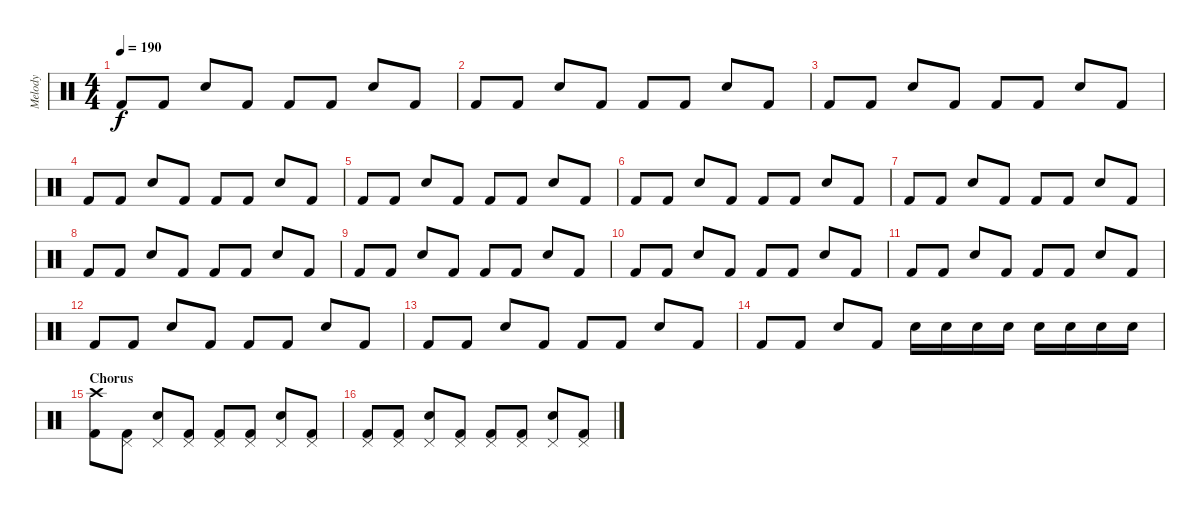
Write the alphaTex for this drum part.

\track ("Melody" "Melody") {instrument percussion}
\staff {score}
\articulation defaults
\ts (4 4)
\tempo 190
\clef neutral
\ks c "Kick (hit) 2".8{dy f} "Kick (hit) 2".8 "Snare (hit) 2".8 "Kick (hit) 2".8 "Kick (hit) 2".8 "Kick (hit) 2".8 "Snare (hit) 2".8 "Kick (hit) 2".8
|
"Kick (hit) 2".8 "Kick (hit) 2".8 "Snare (hit) 2".8 "Kick (hit) 2".8 "Kick (hit) 2".8 "Kick (hit) 2".8 "Snare (hit) 2".8 "Kick (hit) 2".8 |
"Kick (hit) 2".8 "Kick (hit) 2".8 "Snare (hit) 2".8 "Kick (hit) 2".8 "Kick (hit) 2".8 "Kick (hit) 2".8 "Snare (hit) 2".8 "Kick (hit) 2".8 |
"Kick (hit) 2".8 "Kick (hit) 2".8 "Snare (hit) 2".8 "Kick (hit) 2".8 "Kick (hit) 2".8 "Kick (hit) 2".8 "Snare (hit) 2".8 "Kick (hit) 2".8 |
"Kick (hit) 2".8 "Kick (hit) 2".8 "Snare (hit) 2".8 "Kick (hit) 2".8 "Kick (hit) 2".8 "Kick (hit) 2".8 "Snare (hit) 2".8 "Kick (hit) 2".8 |
"Kick (hit) 2".8 "Kick (hit) 2".8 "Snare (hit) 2".8 "Kick (hit) 2".8 "Kick (hit) 2".8 "Kick (hit) 2".8 "Snare (hit) 2".8 "Kick (hit) 2".8 |
"Kick (hit) 2".8 "Kick (hit) 2".8 "Snare (hit) 2".8 "Kick (hit) 2".8 "Kick (hit) 2".8 "Kick (hit) 2".8 "Snare (hit) 2".8 "Kick (hit) 2".8 |
"Kick (hit) 2".8 "Kick (hit) 2".8 "Snare (hit) 2".8 "Kick (hit) 2".8 "Kick (hit) 2".8 "Kick (hit) 2".8 "Snare (hit) 2".8 "Kick (hit) 2".8 |
"Kick (hit) 2".8 "Kick (hit) 2".8 "Snare (hit) 2".8 "Kick (hit) 2".8 "Kick (hit) 2".8 "Kick (hit) 2".8 "Snare (hit) 2".8 "Kick (hit) 2".8 |
"Kick (hit) 2".8 "Kick (hit) 2".8 "Snare (hit) 2".8 "Kick (hit) 2".8 "Kick (hit) 2".8 "Kick (hit) 2".8 "Snare (hit) 2".8 "Kick (hit) 2".8 |
"Kick (hit) 2".8 "Kick (hit) 2".8 "Snare (hit) 2".8 "Kick (hit) 2".8 "Kick (hit) 2".8 "Kick (hit) 2".8 "Snare (hit) 2".8 "Kick (hit) 2".8 |
"Kick (hit) 2".8 "Kick (hit) 2".8 "Snare (hit) 2".8 "Kick (hit) 2".8 "Kick (hit) 2".8 "Kick (hit) 2".8 "Snare (hit) 2".8 "Kick (hit) 2".8 |
"Kick (hit) 2".8 "Kick (hit) 2".8 "Snare (hit) 2".8 "Kick (hit) 2".8 "Kick (hit) 2".8 "Kick (hit) 2".8 "Snare (hit) 2".8 "Kick (hit) 2".8 |
"Kick (hit) 2".8 "Kick (hit) 2".8 "Snare (hit) 2".8 "Kick (hit) 2".8 "Snare (hit) 2".16 "Snare (hit) 2".16 "Snare (hit) 2".16 "Snare (hit) 2".16 "Snare (hit) 2".16 "Snare (hit) 2".16 "Snare (hit) 2".16 "Snare (hit) 2".16 |
\section ("" "Chorus")
("Crash high (hit)" "Kick (hit) 2").8 ("Pedal Hi-Hat (hit)" "Kick (hit) 2").8 ("Pedal Hi-Hat (hit)" "Snare (hit) 2").8 ("Pedal Hi-Hat (hit)" "Kick (hit) 2").8 ("Pedal Hi-Hat (hit)" "Kick (hit) 2").8 ("Pedal Hi-Hat (hit)" "Kick (hit) 2").8 ("Pedal Hi-Hat (hit)" "Snare (hit) 2").8 ("Pedal Hi-Hat (hit)" "Kick (hit) 2").8 |
("Pedal Hi-Hat (hit)" "Kick (hit) 2").8 ("Pedal Hi-Hat (hit)" "Kick (hit) 2").8 ("Pedal Hi-Hat (hit)" "Snare (hit) 2").8 ("Pedal Hi-Hat (hit)" "Kick (hit) 2").8 ("Pedal Hi-Hat (hit)" "Kick (hit) 2").8 ("Pedal Hi-Hat (hit)" "Kick (hit) 2").8 ("Pedal Hi-Hat (hit)" "Snare (hit) 2").8 ("Pedal Hi-Hat (hit)" "Kick (hit) 2").8
